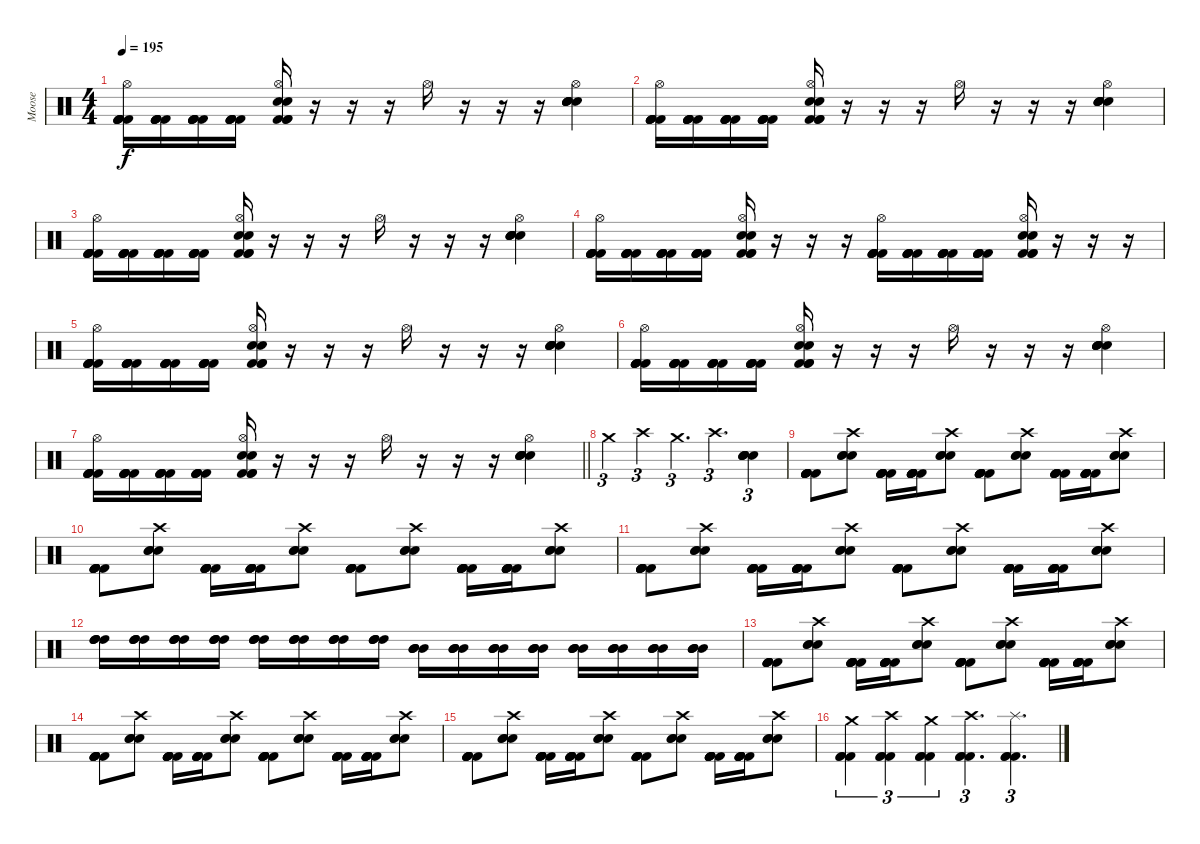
\track ("Moose" "Moose") {instrument percussion}
\staff {score}
\articulation defaults
\ts (4 4)
\tempo 195
\clef neutral
\ks c
("Kick (hit) 2" "Kick (hit) 2" "Kick (hit) 2" "Kick (hit) 2" "Kick (hit) 2" "Hi-Hat (open)").16{dy f} ("Kick (hit) 2" "Kick (hit) 2" "Kick (hit) 2" "Kick (hit) 2" "Kick (hit) 2").16 ("Kick (hit) 2" "Kick (hit) 2" "Kick (hit) 2" "Kick (hit) 2" "Kick (hit) 2").16 ("Kick (hit) 2" "Kick (hit) 2" "Kick (hit) 2" "Kick (hit) 2" "Kick (hit) 2").16 ("Kick (hit) 2" "Kick (hit) 2" "Kick (hit) 2" "Electric Snare (hit)" "Electric Snare (hit)" "Hi-Hat (open)").16 r.16 r.16 r.16 "Hi-Hat (open)".16 r.16 r.16 r.16 ("Electric Snare (hit)" "Electric Snare (hit)" "Electric Snare (hit)" "Electric Snare (hit)" "Electric Snare (hit)" "Hi-Hat (open)").4 |
("Kick (hit) 2" "Kick (hit) 2" "Kick (hit) 2" "Kick (hit) 2" "Kick (hit) 2" "Hi-Hat (open)").16 ("Kick (hit) 2" "Kick (hit) 2" "Kick (hit) 2" "Kick (hit) 2" "Kick (hit) 2").16 ("Kick (hit) 2" "Kick (hit) 2" "Kick (hit) 2" "Kick (hit) 2" "Kick (hit) 2").16 ("Kick (hit) 2" "Kick (hit) 2" "Kick (hit) 2" "Kick (hit) 2" "Kick (hit) 2").16 ("Kick (hit) 2" "Kick (hit) 2" "Kick (hit) 2" "Electric Snare (hit)" "Electric Snare (hit)" "Hi-Hat (open)").16 r.16 r.16 r.16 "Hi-Hat (open)".16 r.16 r.16 r.16 ("Electric Snare (hit)" "Electric Snare (hit)" "Electric Snare (hit)" "Electric Snare (hit)" "Electric Snare (hit)" "Hi-Hat (open)").4 |
("Kick (hit) 2" "Kick (hit) 2" "Kick (hit) 2" "Kick (hit) 2" "Kick (hit) 2" "Hi-Hat (open)").16 ("Kick (hit) 2" "Kick (hit) 2" "Kick (hit) 2" "Kick (hit) 2" "Kick (hit) 2").16 ("Kick (hit) 2" "Kick (hit) 2" "Kick (hit) 2" "Kick (hit) 2" "Kick (hit) 2").16 ("Kick (hit) 2" "Kick (hit) 2" "Kick (hit) 2" "Kick (hit) 2" "Kick (hit) 2").16 ("Kick (hit) 2" "Kick (hit) 2" "Kick (hit) 2" "Electric Snare (hit)" "Electric Snare (hit)" "Hi-Hat (open)").16 r.16 r.16 r.16 "Hi-Hat (open)".16 r.16 r.16 r.16 ("Electric Snare (hit)" "Electric Snare (hit)" "Electric Snare (hit)" "Electric Snare (hit)" "Electric Snare (hit)" "Hi-Hat (open)").4 |
("Kick (hit) 2" "Kick (hit) 2" "Kick (hit) 2" "Kick (hit) 2" "Kick (hit) 2" "Hi-Hat (open)").16 ("Kick (hit) 2" "Kick (hit) 2" "Kick (hit) 2" "Kick (hit) 2" "Kick (hit) 2").16 ("Kick (hit) 2" "Kick (hit) 2" "Kick (hit) 2" "Kick (hit) 2" "Kick (hit) 2").16 ("Kick (hit) 2" "Kick (hit) 2" "Kick (hit) 2" "Kick (hit) 2" "Kick (hit) 2").16 ("Kick (hit) 2" "Kick (hit) 2" "Kick (hit) 2" "Electric Snare (hit)" "Electric Snare (hit)" "Hi-Hat (open)").16 r.16 r.16 r.16 ("Kick (hit) 2" "Kick (hit) 2" "Kick (hit) 2" "Kick (hit) 2" "Kick (hit) 2" "Hi-Hat (open)").16 ("Kick (hit) 2" "Kick (hit) 2" "Kick (hit) 2" "Kick (hit) 2" "Kick (hit) 2").16 ("Kick (hit) 2" "Kick (hit) 2" "Kick (hit) 2" "Kick (hit) 2" "Kick (hit) 2").16 ("Kick (hit) 2" "Kick (hit) 2" "Kick (hit) 2" "Kick (hit) 2" "Kick (hit) 2").16 ("Kick (hit) 2" "Kick (hit) 2" "Kick (hit) 2" "Electric Snare (hit)" "Electric Snare (hit)" "Hi-Hat (open)").16 r.16 r.16 r.16 |
("Kick (hit) 2" "Kick (hit) 2" "Kick (hit) 2" "Kick (hit) 2" "Kick (hit) 2" "Hi-Hat (open)").16 ("Kick (hit) 2" "Kick (hit) 2" "Kick (hit) 2" "Kick (hit) 2" "Kick (hit) 2").16 ("Kick (hit) 2" "Kick (hit) 2" "Kick (hit) 2" "Kick (hit) 2" "Kick (hit) 2").16 ("Kick (hit) 2" "Kick (hit) 2" "Kick (hit) 2" "Kick (hit) 2" "Kick (hit) 2").16 ("Kick (hit) 2" "Kick (hit) 2" "Kick (hit) 2" "Electric Snare (hit)" "Electric Snare (hit)" "Hi-Hat (open)").16 r.16 r.16 r.16 "Hi-Hat (open)".16 r.16 r.16 r.16 ("Electric Snare (hit)" "Electric Snare (hit)" "Electric Snare (hit)" "Electric Snare (hit)" "Electric Snare (hit)" "Hi-Hat (open)").4 |
("Kick (hit) 2" "Kick (hit) 2" "Kick (hit) 2" "Kick (hit) 2" "Kick (hit) 2" "Hi-Hat (open)").16 ("Kick (hit) 2" "Kick (hit) 2" "Kick (hit) 2" "Kick (hit) 2" "Kick (hit) 2").16 ("Kick (hit) 2" "Kick (hit) 2" "Kick (hit) 2" "Kick (hit) 2" "Kick (hit) 2").16 ("Kick (hit) 2" "Kick (hit) 2" "Kick (hit) 2" "Kick (hit) 2" "Kick (hit) 2").16 ("Kick (hit) 2" "Kick (hit) 2" "Kick (hit) 2" "Electric Snare (hit)" "Electric Snare (hit)" "Hi-Hat (open)").16 r.16 r.16 r.16 "Hi-Hat (open)".16 r.16 r.16 r.16 ("Electric Snare (hit)" "Electric Snare (hit)" "Electric Snare (hit)" "Electric Snare (hit)" "Electric Snare (hit)" "Hi-Hat (open)").4 |
\barLineRight lightlight
("Kick (hit) 2" "Kick (hit) 2" "Kick (hit) 2" "Kick (hit) 2" "Kick (hit) 2" "Hi-Hat (open)").16 ("Kick (hit) 2" "Kick (hit) 2" "Kick (hit) 2" "Kick (hit) 2" "Kick (hit) 2").16 ("Kick (hit) 2" "Kick (hit) 2" "Kick (hit) 2" "Kick (hit) 2" "Kick (hit) 2").16 ("Kick (hit) 2" "Kick (hit) 2" "Kick (hit) 2" "Kick (hit) 2" "Kick (hit) 2").16 ("Kick (hit) 2" "Kick (hit) 2" "Kick (hit) 2" "Electric Snare (hit)" "Electric Snare (hit)" "Hi-Hat (open)").16 r.16 r.16 r.16 "Hi-Hat (open)".16 r.16 r.16 r.16 ("Electric Snare (hit)" "Electric Snare (hit)" "Electric Snare (hit)" "Electric Snare (hit)" "Electric Snare (hit)" "Hi-Hat (open)").4 |
"Crash medium (hit)".4{tu (3 2)} "Crash high (hit)".4{tu (3 2)} "Crash medium (hit)".4{d tu (3 2)} "Crash high (hit)".4{d tu (3 2)} ("Electric Snare (hit)" "Electric Snare (hit)" "Electric Snare (hit)" "Electric Snare (hit)" "Electric Snare (hit)").4{tu (3 2)} |
("Kick (hit) 2" "Kick (hit) 2" "Kick (hit) 2" "Kick (hit) 2" "Kick (hit) 2" "Kick (hit) 2").8 ("Electric Snare (hit)" "Electric Snare (hit)" "Electric Snare (hit)" "Crash high (hit)").8 ("Kick (hit) 2" "Kick (hit) 2" "Kick (hit) 2" "Kick (hit) 2" "Kick (hit) 2" "Kick (hit) 2").16 ("Kick (hit) 2" "Kick (hit) 2" "Kick (hit) 2" "Kick (hit) 2" "Kick (hit) 2" "Kick (hit) 2").16 ("Electric Snare (hit)" "Electric Snare (hit)" "Electric Snare (hit)" "Crash high (hit)").8 ("Kick (hit) 2" "Kick (hit) 2" "Kick (hit) 2" "Kick (hit) 2" "Kick (hit) 2" "Kick (hit) 2").8 ("Electric Snare (hit)" "Electric Snare (hit)" "Electric Snare (hit)" "Crash high (hit)").8 ("Kick (hit) 2" "Kick (hit) 2" "Kick (hit) 2" "Kick (hit) 2" "Kick (hit) 2" "Kick (hit) 2").16 ("Kick (hit) 2" "Kick (hit) 2" "Kick (hit) 2" "Kick (hit) 2" "Kick (hit) 2" "Kick (hit) 2").16 ("Electric Snare (hit)" "Electric Snare (hit)" "Electric Snare (hit)" "Crash high (hit)").8 |
("Kick (hit) 2" "Kick (hit) 2" "Kick (hit) 2" "Kick (hit) 2" "Kick (hit) 2" "Kick (hit) 2").8 ("Electric Snare (hit)" "Electric Snare (hit)" "Electric Snare (hit)" "Crash high (hit)").8 ("Kick (hit) 2" "Kick (hit) 2" "Kick (hit) 2" "Kick (hit) 2" "Kick (hit) 2" "Kick (hit) 2").16 ("Kick (hit) 2" "Kick (hit) 2" "Kick (hit) 2" "Kick (hit) 2" "Kick (hit) 2" "Kick (hit) 2").16 ("Electric Snare (hit)" "Electric Snare (hit)" "Electric Snare (hit)" "Crash high (hit)").8 ("Kick (hit) 2" "Kick (hit) 2" "Kick (hit) 2" "Kick (hit) 2" "Kick (hit) 2" "Kick (hit) 2").8 ("Electric Snare (hit)" "Electric Snare (hit)" "Electric Snare (hit)" "Crash high (hit)").8 ("Kick (hit) 2" "Kick (hit) 2" "Kick (hit) 2" "Kick (hit) 2" "Kick (hit) 2" "Kick (hit) 2").16 ("Kick (hit) 2" "Kick (hit) 2" "Kick (hit) 2" "Kick (hit) 2" "Kick (hit) 2" "Kick (hit) 2").16 ("Electric Snare (hit)" "Electric Snare (hit)" "Electric Snare (hit)" "Crash high (hit)").8 |
("Kick (hit) 2" "Kick (hit) 2" "Kick (hit) 2" "Kick (hit) 2" "Kick (hit) 2" "Kick (hit) 2").8 ("Electric Snare (hit)" "Electric Snare (hit)" "Electric Snare (hit)" "Crash high (hit)").8 ("Kick (hit) 2" "Kick (hit) 2" "Kick (hit) 2" "Kick (hit) 2" "Kick (hit) 2" "Kick (hit) 2").16 ("Kick (hit) 2" "Kick (hit) 2" "Kick (hit) 2" "Kick (hit) 2" "Kick (hit) 2" "Kick (hit) 2").16 ("Electric Snare (hit)" "Electric Snare (hit)" "Electric Snare (hit)" "Crash high (hit)").8 ("Kick (hit) 2" "Kick (hit) 2" "Kick (hit) 2" "Kick (hit) 2" "Kick (hit) 2" "Kick (hit) 2").8 ("Electric Snare (hit)" "Electric Snare (hit)" "Electric Snare (hit)" "Crash high (hit)").8 ("Kick (hit) 2" "Kick (hit) 2" "Kick (hit) 2" "Kick (hit) 2" "Kick (hit) 2" "Kick (hit) 2").16 ("Kick (hit) 2" "Kick (hit) 2" "Kick (hit) 2" "Kick (hit) 2" "Kick (hit) 2" "Kick (hit) 2").16 ("Electric Snare (hit)" "Electric Snare (hit)" "Electric Snare (hit)" "Crash high (hit)").8 |
("High Tom (hit)" "High Tom (hit)" "High Tom (hit)" "High Tom (hit)").16 ("High Tom (hit)" "High Tom (hit)" "High Tom (hit)" "High Tom (hit)").16 ("High Tom (hit)" "High Tom (hit)" "High Tom (hit)" "High Tom (hit)").16 ("High Tom (hit)" "High Tom (hit)" "High Tom (hit)" "High Tom (hit)").16 ("High Tom (hit)" "High Tom (hit)" "High Tom (hit)" "High Tom (hit)").16 ("High Tom (hit)" "High Tom (hit)" "High Tom (hit)" "High Tom (hit)").16 ("High Tom (hit)" "High Tom (hit)" "High Tom (hit)" "High Tom (hit)").16 ("High Tom (hit)" "High Tom (hit)" "High Tom (hit)" "High Tom (hit)").16 ("Mid Tom (hit)" "Mid Tom (hit)" "Mid Tom (hit)" "Mid Tom (hit)").16 ("Mid Tom (hit)" "Mid Tom (hit)" "Mid Tom (hit)" "Mid Tom (hit)").16 ("Mid Tom (hit)" "Mid Tom (hit)" "Mid Tom (hit)" "Mid Tom (hit)").16 ("Mid Tom (hit)" "Mid Tom (hit)" "Mid Tom (hit)" "Mid Tom (hit)").16 ("Mid Tom (hit)" "Mid Tom (hit)" "Mid Tom (hit)" "Mid Tom (hit)").16 ("Mid Tom (hit)" "Mid Tom (hit)" "Mid Tom (hit)" "Mid Tom (hit)").16 ("Mid Tom (hit)" "Mid Tom (hit)" "Mid Tom (hit)" "Mid Tom (hit)").16 ("Mid Tom (hit)" "Mid Tom (hit)" "Mid Tom (hit)" "Mid Tom (hit)").16 |
("Kick (hit) 2" "Kick (hit) 2" "Kick (hit) 2" "Kick (hit) 2" "Kick (hit) 2" "Kick (hit) 2").8 ("Electric Snare (hit)" "Electric Snare (hit)" "Electric Snare (hit)" "Crash high (hit)").8 ("Kick (hit) 2" "Kick (hit) 2" "Kick (hit) 2" "Kick (hit) 2" "Kick (hit) 2" "Kick (hit) 2").16 ("Kick (hit) 2" "Kick (hit) 2" "Kick (hit) 2" "Kick (hit) 2" "Kick (hit) 2" "Kick (hit) 2").16 ("Electric Snare (hit)" "Electric Snare (hit)" "Electric Snare (hit)" "Crash high (hit)").8 ("Kick (hit) 2" "Kick (hit) 2" "Kick (hit) 2" "Kick (hit) 2" "Kick (hit) 2" "Kick (hit) 2").8 ("Electric Snare (hit)" "Electric Snare (hit)" "Electric Snare (hit)" "Crash high (hit)").8 ("Kick (hit) 2" "Kick (hit) 2" "Kick (hit) 2" "Kick (hit) 2" "Kick (hit) 2" "Kick (hit) 2").16 ("Kick (hit) 2" "Kick (hit) 2" "Kick (hit) 2" "Kick (hit) 2" "Kick (hit) 2" "Kick (hit) 2").16 ("Electric Snare (hit)" "Electric Snare (hit)" "Electric Snare (hit)" "Crash high (hit)").8 |
("Kick (hit) 2" "Kick (hit) 2" "Kick (hit) 2" "Kick (hit) 2" "Kick (hit) 2" "Kick (hit) 2").8 ("Electric Snare (hit)" "Electric Snare (hit)" "Electric Snare (hit)" "Crash high (hit)").8 ("Kick (hit) 2" "Kick (hit) 2" "Kick (hit) 2" "Kick (hit) 2" "Kick (hit) 2" "Kick (hit) 2").16 ("Kick (hit) 2" "Kick (hit) 2" "Kick (hit) 2" "Kick (hit) 2" "Kick (hit) 2" "Kick (hit) 2").16 ("Electric Snare (hit)" "Electric Snare (hit)" "Electric Snare (hit)" "Crash high (hit)").8 ("Kick (hit) 2" "Kick (hit) 2" "Kick (hit) 2" "Kick (hit) 2" "Kick (hit) 2" "Kick (hit) 2").8 ("Electric Snare (hit)" "Electric Snare (hit)" "Electric Snare (hit)" "Crash high (hit)").8 ("Kick (hit) 2" "Kick (hit) 2" "Kick (hit) 2" "Kick (hit) 2" "Kick (hit) 2" "Kick (hit) 2").16 ("Kick (hit) 2" "Kick (hit) 2" "Kick (hit) 2" "Kick (hit) 2" "Kick (hit) 2" "Kick (hit) 2").16 ("Electric Snare (hit)" "Electric Snare (hit)" "Electric Snare (hit)" "Crash high (hit)").8 |
("Kick (hit) 2" "Kick (hit) 2" "Kick (hit) 2" "Kick (hit) 2" "Kick (hit) 2" "Kick (hit) 2").8 ("Electric Snare (hit)" "Electric Snare (hit)" "Electric Snare (hit)" "Crash high (hit)").8 ("Kick (hit) 2" "Kick (hit) 2" "Kick (hit) 2" "Kick (hit) 2" "Kick (hit) 2" "Kick (hit) 2").16 ("Kick (hit) 2" "Kick (hit) 2" "Kick (hit) 2" "Kick (hit) 2" "Kick (hit) 2" "Kick (hit) 2").16 ("Electric Snare (hit)" "Electric Snare (hit)" "Electric Snare (hit)" "Crash high (hit)").8 ("Kick (hit) 2" "Kick (hit) 2" "Kick (hit) 2" "Kick (hit) 2" "Kick (hit) 2" "Kick (hit) 2").8 ("Electric Snare (hit)" "Electric Snare (hit)" "Electric Snare (hit)" "Crash high (hit)").8 ("Kick (hit) 2" "Kick (hit) 2" "Kick (hit) 2" "Kick (hit) 2" "Kick (hit) 2" "Kick (hit) 2").16 ("Kick (hit) 2" "Kick (hit) 2" "Kick (hit) 2" "Kick (hit) 2" "Kick (hit) 2" "Kick (hit) 2").16 ("Electric Snare (hit)" "Electric Snare (hit)" "Electric Snare (hit)" "Crash high (hit)").8 |
("Kick (hit) 2" "Kick (hit) 2" "Kick (hit) 2" "Crash medium (hit)").4{tu (3 2)} ("Kick (hit) 2" "Kick (hit) 2" "Kick (hit) 2" "Crash high (hit)").4{tu (3 2)} ("Kick (hit) 2" "Kick (hit) 2" "Kick (hit) 2" "Crash medium (hit)").4{tu (3 2)} ("Kick (hit) 2" "Kick (hit) 2" "Kick (hit) 2" "Crash high (hit)").4{d tu (3 2)} ("Kick (hit) 2" "Kick (hit) 2" "Kick (hit) 2" "Splash (hit)").4{d tu (3 2)}
